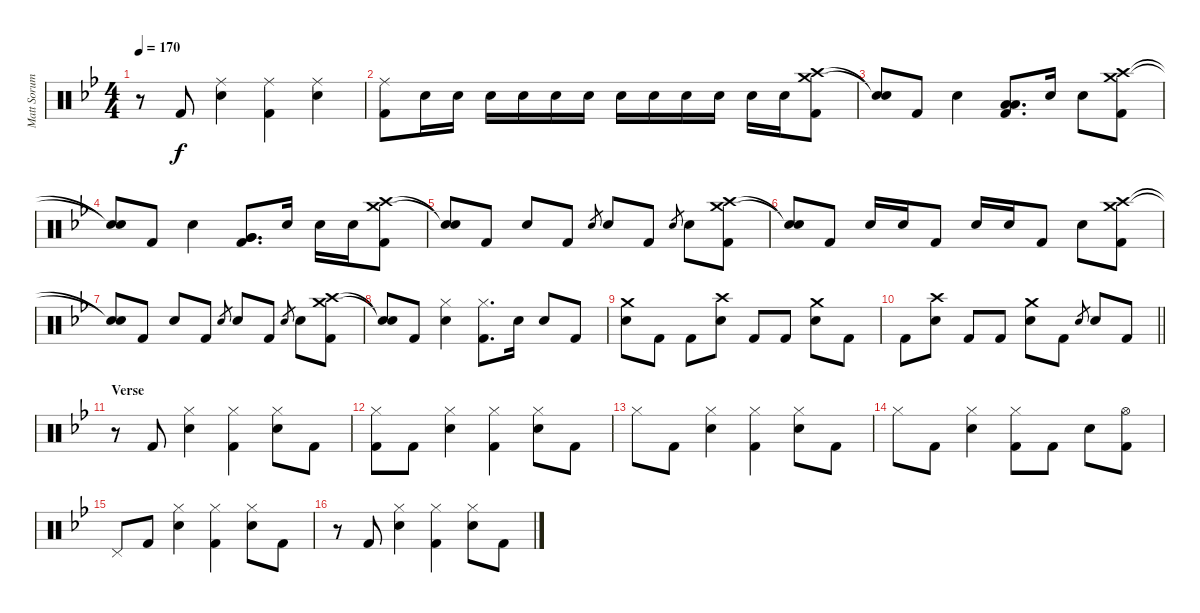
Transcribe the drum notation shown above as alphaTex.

\track ("Matt Sorum - Drums" "Matt Sorum") {instrument percussion}
\staff {score}
\articulation defaults
\ts (4 4)
\tempo 170
\clef neutral
\ks bb
r.8{dy f} "Kick (hit) 2".8 ("Ride (middle)" "Snare (hit) 2").4 ("Ride (middle)" "Kick (hit) 2").4 ("Ride (middle)" "Snare (hit) 2").4 |
("Ride (middle)" "Kick (hit) 2").8 "Snare (hit) 2".16 "Snare (hit) 2".16 "Snare (hit) 2".16 "Snare (hit) 2".16 "Snare (hit) 2".16 "Snare (hit) 2".16 "Snare (hit) 2".16 "Snare (hit) 2".16 "Snare (hit) 2".16 "Snare (hit) 2".16 "Snare (hit) 2".16 "Snare (hit) 2".16 ("Crash medium (hit)" "Crash high (hit)" "Kick (hit) 2").8 |
("Snare (hit)"{t} "Snare (hit)"{t}).8 "Kick (hit) 2".8 "Snare (hit) 2".4 ("Low Tom (hit)" "Low Tom (hit)" "Kick (hit) 2").8{d} "Snare (hit) 2".16 "Snare (hit) 2".8 ("Crash medium (hit)" "Crash high (hit)" "Kick (hit) 2").8 |
("Snare (hit)"{t} "Snare (hit)"{t}).8 "Kick (hit) 2".8 "Snare (hit) 2".4 ("Very Low Tom (hit)" "Very Low Tom (hit)" "Kick (hit) 2").8{d} "Snare (hit) 2".16 "Snare (hit) 2".16 "Snare (hit) 2".16 ("Crash medium (hit)" "Crash high (hit)" "Kick (hit) 2").8 |
("Snare (hit)"{t} "Snare (hit)"{t}).8 "Kick (hit) 2".8 "Snare (hit) 2".8 "Kick (hit) 2".8 "Snare (hit) 2".8{gr} "Snare (hit) 2".8 "Kick (hit) 2".8 "Snare (hit) 2".8{gr} "Snare (hit) 2".8 ("Crash medium (hit)" "Crash high (hit)" "Kick (hit) 2").8 |
("Snare (hit)"{t} "Snare (hit)"{t}).8 "Kick (hit) 2".8 "Snare (hit) 2".16 "Snare (hit) 2".16 "Kick (hit) 2".8 "Snare (hit) 2".16 "Snare (hit) 2".16 "Kick (hit) 2".8 "Snare (hit) 2".8 ("Crash medium (hit)" "Crash high (hit)" "Kick (hit) 2").8 |
("Snare (hit)"{t} "Snare (hit)"{t}).8 "Kick (hit) 2".8 "Snare (hit) 2".8 "Kick (hit) 2".8 "Snare (hit) 2".8{gr} "Snare (hit) 2".8 "Kick (hit) 2".8 "Snare (hit) 2".8{gr} "Snare (hit) 2".8 ("Crash medium (hit)" "Crash high (hit)" "Kick (hit) 2").8 |
("Snare (hit)"{t} "Snare (hit)"{t}).8 "Kick (hit) 2".8 ("Hi-Hat (closed)" "Snare (hit) 2").4 ("Hi-Hat (closed)" "Kick (hit) 2").8{d} "Snare (hit) 2".16 "Snare (hit) 2".8 "Kick (hit) 2".8 |
("Crash medium (hit)" "Snare (hit) 2").8 "Kick (hit) 2".8 "Kick (hit) 2".8 ("Crash high (hit)" "Snare (hit) 2").8 "Kick (hit) 2".8 "Kick (hit) 2".8 ("Crash medium (hit)" "Snare (hit) 2").8 "Kick (hit) 2".8 |
\barLineRight lightlight "Kick (hit) 2".8
("Crash high (hit)" "Snare (hit) 2").8 "Kick (hit) 2".8 "Kick (hit) 2".8 ("Crash medium (hit)" "Snare (hit) 2").8 "Kick (hit) 2".8 "Snare (hit) 2".8{gr} "Snare (hit) 2".8 "Kick (hit) 2".8 |
\section ("" "Verse")
r.8 "Kick (hit) 2".8 ("Hi-Hat (closed)" "Snare (hit) 2").4 ("Hi-Hat (closed)" "Kick (hit) 2").4 ("Hi-Hat (closed)" "Snare (hit) 2").8 "Kick (hit) 2".8 |
("Hi-Hat (closed)" "Kick (hit) 2").8 "Kick (hit) 2".8 ("Hi-Hat (closed)" "Snare (hit) 2").4 ("Hi-Hat (closed)" "Kick (hit) 2").4 ("Hi-Hat (closed)" "Snare (hit) 2").8 "Kick (hit) 2".8 |
"Hi-Hat (closed)".8 "Kick (hit) 2".8 ("Hi-Hat (closed)" "Snare (hit) 2").4 ("Hi-Hat (closed)" "Kick (hit) 2").4 ("Hi-Hat (closed)" "Snare (hit) 2").8 "Kick (hit) 2".8 |
"Hi-Hat (closed)".8 "Kick (hit) 2".8 ("Hi-Hat (closed)" "Snare (hit) 2").4 ("Hi-Hat (closed)" "Kick (hit) 2").8 "Kick (hit) 2".8 "Snare (hit) 2".8 ("Hi-Hat (open)" "Kick (hit) 2").8 |
"Pedal Hi-Hat (hit)".8 "Kick (hit) 2".8 ("Hi-Hat (closed)" "Snare (hit) 2").4 ("Hi-Hat (closed)" "Kick (hit) 2").4 ("Hi-Hat (closed)" "Snare (hit) 2").8 "Kick (hit) 2".8 |
r.8 "Kick (hit) 2".8 ("Hi-Hat (closed)" "Snare (hit) 2").4 ("Hi-Hat (closed)" "Kick (hit) 2").4 ("Hi-Hat (closed)" "Snare (hit) 2").8 "Kick (hit) 2".8
